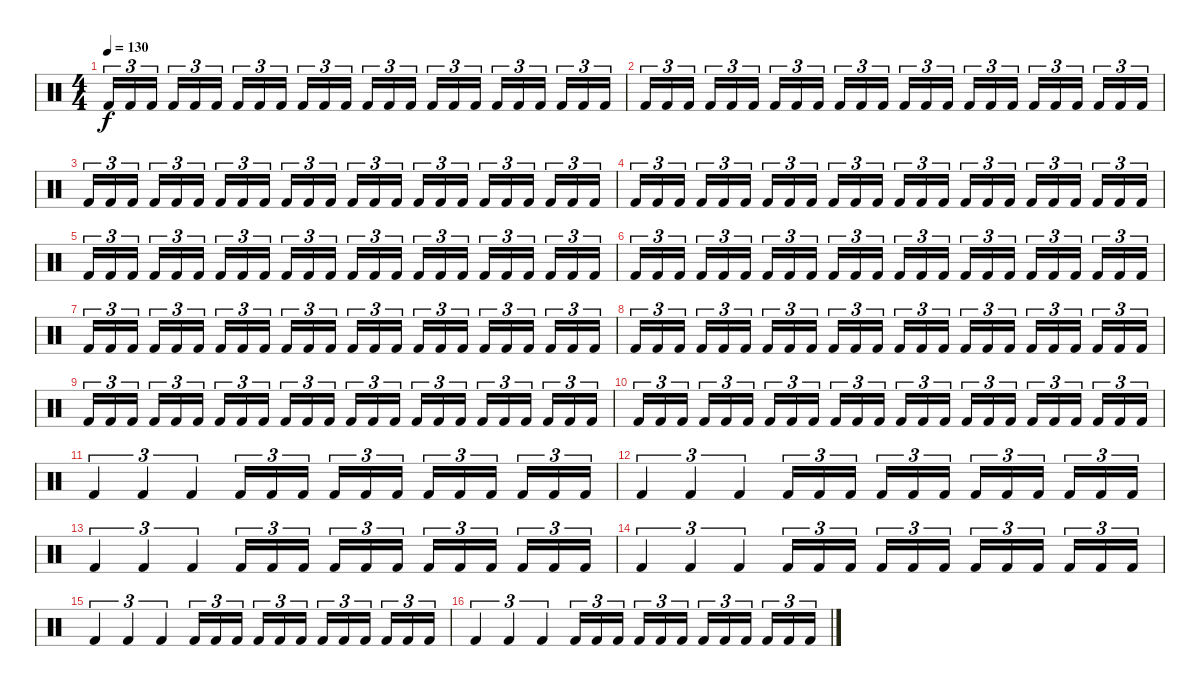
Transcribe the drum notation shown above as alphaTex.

\track "" {instrument percussion}
\staff {score}
\articulation defaults
\ts (4 4)
\tempo 130
\clef neutral
\ks c "Kick (hit) 2".16{tu (3 2) dy f} "Kick (hit) 2".16{tu (3 2)} "Kick (hit) 2".16{tu (3 2)} "Kick (hit) 2".16{tu (3 2)} "Kick (hit) 2".16{tu (3 2)} "Kick (hit) 2".16{tu (3 2)} "Kick (hit) 2".16{tu (3 2)} "Kick (hit) 2".16{tu (3 2)} "Kick (hit) 2".16{tu (3 2)} "Kick (hit) 2".16{tu (3 2)} "Kick (hit) 2".16{tu (3 2)} "Kick (hit) 2".16{tu (3 2)} "Kick (hit) 2".16{tu (3 2)} "Kick (hit) 2".16{tu (3 2)} "Kick (hit) 2".16{tu (3 2)} "Kick (hit) 2".16{tu (3 2)} "Kick (hit) 2".16{tu (3 2)} "Kick (hit) 2".16{tu (3 2)} "Kick (hit) 2".16{tu (3 2)} "Kick (hit) 2".16{tu (3 2)} "Kick (hit) 2".16{tu (3 2)} "Kick (hit) 2".16{tu (3 2)} "Kick (hit) 2".16{tu (3 2)} "Kick (hit) 2".16{tu (3 2)}
|
"Kick (hit) 2".16{tu (3 2)} "Kick (hit) 2".16{tu (3 2)} "Kick (hit) 2".16{tu (3 2)} "Kick (hit) 2".16{tu (3 2)} "Kick (hit) 2".16{tu (3 2)} "Kick (hit) 2".16{tu (3 2)} "Kick (hit) 2".16{tu (3 2)} "Kick (hit) 2".16{tu (3 2)} "Kick (hit) 2".16{tu (3 2)} "Kick (hit) 2".16{tu (3 2)} "Kick (hit) 2".16{tu (3 2)} "Kick (hit) 2".16{tu (3 2)} "Kick (hit) 2".16{tu (3 2)} "Kick (hit) 2".16{tu (3 2)} "Kick (hit) 2".16{tu (3 2)} "Kick (hit) 2".16{tu (3 2)} "Kick (hit) 2".16{tu (3 2)} "Kick (hit) 2".16{tu (3 2)} "Kick (hit) 2".16{tu (3 2)} "Kick (hit) 2".16{tu (3 2)} "Kick (hit) 2".16{tu (3 2)} "Kick (hit) 2".16{tu (3 2)} "Kick (hit) 2".16{tu (3 2)} "Kick (hit) 2".16{tu (3 2)} |
"Kick (hit) 2".16{tu (3 2)} "Kick (hit) 2".16{tu (3 2)} "Kick (hit) 2".16{tu (3 2)} "Kick (hit) 2".16{tu (3 2)} "Kick (hit) 2".16{tu (3 2)} "Kick (hit) 2".16{tu (3 2)} "Kick (hit) 2".16{tu (3 2)} "Kick (hit) 2".16{tu (3 2)} "Kick (hit) 2".16{tu (3 2)} "Kick (hit) 2".16{tu (3 2)} "Kick (hit) 2".16{tu (3 2)} "Kick (hit) 2".16{tu (3 2)} "Kick (hit) 2".16{tu (3 2)} "Kick (hit) 2".16{tu (3 2)} "Kick (hit) 2".16{tu (3 2)} "Kick (hit) 2".16{tu (3 2)} "Kick (hit) 2".16{tu (3 2)} "Kick (hit) 2".16{tu (3 2)} "Kick (hit) 2".16{tu (3 2)} "Kick (hit) 2".16{tu (3 2)} "Kick (hit) 2".16{tu (3 2)} "Kick (hit) 2".16{tu (3 2)} "Kick (hit) 2".16{tu (3 2)} "Kick (hit) 2".16{tu (3 2)} |
"Kick (hit) 2".16{tu (3 2)} "Kick (hit) 2".16{tu (3 2)} "Kick (hit) 2".16{tu (3 2)} "Kick (hit) 2".16{tu (3 2)} "Kick (hit) 2".16{tu (3 2)} "Kick (hit) 2".16{tu (3 2)} "Kick (hit) 2".16{tu (3 2)} "Kick (hit) 2".16{tu (3 2)} "Kick (hit) 2".16{tu (3 2)} "Kick (hit) 2".16{tu (3 2)} "Kick (hit) 2".16{tu (3 2)} "Kick (hit) 2".16{tu (3 2)} "Kick (hit) 2".16{tu (3 2)} "Kick (hit) 2".16{tu (3 2)} "Kick (hit) 2".16{tu (3 2)} "Kick (hit) 2".16{tu (3 2)} "Kick (hit) 2".16{tu (3 2)} "Kick (hit) 2".16{tu (3 2)} "Kick (hit) 2".16{tu (3 2)} "Kick (hit) 2".16{tu (3 2)} "Kick (hit) 2".16{tu (3 2)} "Kick (hit) 2".16{tu (3 2)} "Kick (hit) 2".16{tu (3 2)} "Kick (hit) 2".16{tu (3 2)} |
"Kick (hit) 2".16{tu (3 2)} "Kick (hit) 2".16{tu (3 2)} "Kick (hit) 2".16{tu (3 2)} "Kick (hit) 2".16{tu (3 2)} "Kick (hit) 2".16{tu (3 2)} "Kick (hit) 2".16{tu (3 2)} "Kick (hit) 2".16{tu (3 2)} "Kick (hit) 2".16{tu (3 2)} "Kick (hit) 2".16{tu (3 2)} "Kick (hit) 2".16{tu (3 2)} "Kick (hit) 2".16{tu (3 2)} "Kick (hit) 2".16{tu (3 2)} "Kick (hit) 2".16{tu (3 2)} "Kick (hit) 2".16{tu (3 2)} "Kick (hit) 2".16{tu (3 2)} "Kick (hit) 2".16{tu (3 2)} "Kick (hit) 2".16{tu (3 2)} "Kick (hit) 2".16{tu (3 2)} "Kick (hit) 2".16{tu (3 2)} "Kick (hit) 2".16{tu (3 2)} "Kick (hit) 2".16{tu (3 2)} "Kick (hit) 2".16{tu (3 2)} "Kick (hit) 2".16{tu (3 2)} "Kick (hit) 2".16{tu (3 2)} |
"Kick (hit) 2".16{tu (3 2)} "Kick (hit) 2".16{tu (3 2)} "Kick (hit) 2".16{tu (3 2)} "Kick (hit) 2".16{tu (3 2)} "Kick (hit) 2".16{tu (3 2)} "Kick (hit) 2".16{tu (3 2)} "Kick (hit) 2".16{tu (3 2)} "Kick (hit) 2".16{tu (3 2)} "Kick (hit) 2".16{tu (3 2)} "Kick (hit) 2".16{tu (3 2)} "Kick (hit) 2".16{tu (3 2)} "Kick (hit) 2".16{tu (3 2)} "Kick (hit) 2".16{tu (3 2)} "Kick (hit) 2".16{tu (3 2)} "Kick (hit) 2".16{tu (3 2)} "Kick (hit) 2".16{tu (3 2)} "Kick (hit) 2".16{tu (3 2)} "Kick (hit) 2".16{tu (3 2)} "Kick (hit) 2".16{tu (3 2)} "Kick (hit) 2".16{tu (3 2)} "Kick (hit) 2".16{tu (3 2)} "Kick (hit) 2".16{tu (3 2)} "Kick (hit) 2".16{tu (3 2)} "Kick (hit) 2".16{tu (3 2)} |
"Kick (hit) 2".16{tu (3 2)} "Kick (hit) 2".16{tu (3 2)} "Kick (hit) 2".16{tu (3 2)} "Kick (hit) 2".16{tu (3 2)} "Kick (hit) 2".16{tu (3 2)} "Kick (hit) 2".16{tu (3 2)} "Kick (hit) 2".16{tu (3 2)} "Kick (hit) 2".16{tu (3 2)} "Kick (hit) 2".16{tu (3 2)} "Kick (hit) 2".16{tu (3 2)} "Kick (hit) 2".16{tu (3 2)} "Kick (hit) 2".16{tu (3 2)} "Kick (hit) 2".16{tu (3 2)} "Kick (hit) 2".16{tu (3 2)} "Kick (hit) 2".16{tu (3 2)} "Kick (hit) 2".16{tu (3 2)} "Kick (hit) 2".16{tu (3 2)} "Kick (hit) 2".16{tu (3 2)} "Kick (hit) 2".16{tu (3 2)} "Kick (hit) 2".16{tu (3 2)} "Kick (hit) 2".16{tu (3 2)} "Kick (hit) 2".16{tu (3 2)} "Kick (hit) 2".16{tu (3 2)} "Kick (hit) 2".16{tu (3 2)} |
"Kick (hit) 2".16{tu (3 2)} "Kick (hit) 2".16{tu (3 2)} "Kick (hit) 2".16{tu (3 2)} "Kick (hit) 2".16{tu (3 2)} "Kick (hit) 2".16{tu (3 2)} "Kick (hit) 2".16{tu (3 2)} "Kick (hit) 2".16{tu (3 2)} "Kick (hit) 2".16{tu (3 2)} "Kick (hit) 2".16{tu (3 2)} "Kick (hit) 2".16{tu (3 2)} "Kick (hit) 2".16{tu (3 2)} "Kick (hit) 2".16{tu (3 2)} "Kick (hit) 2".16{tu (3 2)} "Kick (hit) 2".16{tu (3 2)} "Kick (hit) 2".16{tu (3 2)} "Kick (hit) 2".16{tu (3 2)} "Kick (hit) 2".16{tu (3 2)} "Kick (hit) 2".16{tu (3 2)} "Kick (hit) 2".16{tu (3 2)} "Kick (hit) 2".16{tu (3 2)} "Kick (hit) 2".16{tu (3 2)} "Kick (hit) 2".16{tu (3 2)} "Kick (hit) 2".16{tu (3 2)} "Kick (hit) 2".16{tu (3 2)} |
"Kick (hit) 2".16{tu (3 2)} "Kick (hit) 2".16{tu (3 2)} "Kick (hit) 2".16{tu (3 2)} "Kick (hit) 2".16{tu (3 2)} "Kick (hit) 2".16{tu (3 2)} "Kick (hit) 2".16{tu (3 2)} "Kick (hit) 2".16{tu (3 2)} "Kick (hit) 2".16{tu (3 2)} "Kick (hit) 2".16{tu (3 2)} "Kick (hit) 2".16{tu (3 2)} "Kick (hit) 2".16{tu (3 2)} "Kick (hit) 2".16{tu (3 2)} "Kick (hit) 2".16{tu (3 2)} "Kick (hit) 2".16{tu (3 2)} "Kick (hit) 2".16{tu (3 2)} "Kick (hit) 2".16{tu (3 2)} "Kick (hit) 2".16{tu (3 2)} "Kick (hit) 2".16{tu (3 2)} "Kick (hit) 2".16{tu (3 2)} "Kick (hit) 2".16{tu (3 2)} "Kick (hit) 2".16{tu (3 2)} "Kick (hit) 2".16{tu (3 2)} "Kick (hit) 2".16{tu (3 2)} "Kick (hit) 2".16{tu (3 2)} |
"Kick (hit) 2".16{tu (3 2)} "Kick (hit) 2".16{tu (3 2)} "Kick (hit) 2".16{tu (3 2)} "Kick (hit) 2".16{tu (3 2)} "Kick (hit) 2".16{tu (3 2)} "Kick (hit) 2".16{tu (3 2)} "Kick (hit) 2".16{tu (3 2)} "Kick (hit) 2".16{tu (3 2)} "Kick (hit) 2".16{tu (3 2)} "Kick (hit) 2".16{tu (3 2)} "Kick (hit) 2".16{tu (3 2)} "Kick (hit) 2".16{tu (3 2)} "Kick (hit) 2".16{tu (3 2)} "Kick (hit) 2".16{tu (3 2)} "Kick (hit) 2".16{tu (3 2)} "Kick (hit) 2".16{tu (3 2)} "Kick (hit) 2".16{tu (3 2)} "Kick (hit) 2".16{tu (3 2)} "Kick (hit) 2".16{tu (3 2)} "Kick (hit) 2".16{tu (3 2)} "Kick (hit) 2".16{tu (3 2)} "Kick (hit) 2".16{tu (3 2)} "Kick (hit) 2".16{tu (3 2)} "Kick (hit) 2".16{tu (3 2)} |
"Kick (hit) 2".4{tu (3 2)} "Kick (hit) 2".4{tu (3 2)} "Kick (hit) 2".4{tu (3 2)} "Kick (hit) 2".16{tu (3 2)} "Kick (hit) 2".16{tu (3 2)} "Kick (hit) 2".16{tu (3 2)} "Kick (hit) 2".16{tu (3 2)} "Kick (hit) 2".16{tu (3 2)} "Kick (hit) 2".16{tu (3 2)} "Kick (hit) 2".16{tu (3 2)} "Kick (hit) 2".16{tu (3 2)} "Kick (hit) 2".16{tu (3 2)} "Kick (hit) 2".16{tu (3 2)} "Kick (hit) 2".16{tu (3 2)} "Kick (hit) 2".16{tu (3 2)} |
"Kick (hit) 2".4{tu (3 2)} "Kick (hit) 2".4{tu (3 2)} "Kick (hit) 2".4{tu (3 2)} "Kick (hit) 2".16{tu (3 2)} "Kick (hit) 2".16{tu (3 2)} "Kick (hit) 2".16{tu (3 2)} "Kick (hit) 2".16{tu (3 2)} "Kick (hit) 2".16{tu (3 2)} "Kick (hit) 2".16{tu (3 2)} "Kick (hit) 2".16{tu (3 2)} "Kick (hit) 2".16{tu (3 2)} "Kick (hit) 2".16{tu (3 2)} "Kick (hit) 2".16{tu (3 2)} "Kick (hit) 2".16{tu (3 2)} "Kick (hit) 2".16{tu (3 2)} |
"Kick (hit) 2".4{tu (3 2)} "Kick (hit) 2".4{tu (3 2)} "Kick (hit) 2".4{tu (3 2)} "Kick (hit) 2".16{tu (3 2)} "Kick (hit) 2".16{tu (3 2)} "Kick (hit) 2".16{tu (3 2)} "Kick (hit) 2".16{tu (3 2)} "Kick (hit) 2".16{tu (3 2)} "Kick (hit) 2".16{tu (3 2)} "Kick (hit) 2".16{tu (3 2)} "Kick (hit) 2".16{tu (3 2)} "Kick (hit) 2".16{tu (3 2)} "Kick (hit) 2".16{tu (3 2)} "Kick (hit) 2".16{tu (3 2)} "Kick (hit) 2".16{tu (3 2)} |
"Kick (hit) 2".4{tu (3 2)} "Kick (hit) 2".4{tu (3 2)} "Kick (hit) 2".4{tu (3 2)} "Kick (hit) 2".16{tu (3 2)} "Kick (hit) 2".16{tu (3 2)} "Kick (hit) 2".16{tu (3 2)} "Kick (hit) 2".16{tu (3 2)} "Kick (hit) 2".16{tu (3 2)} "Kick (hit) 2".16{tu (3 2)} "Kick (hit) 2".16{tu (3 2)} "Kick (hit) 2".16{tu (3 2)} "Kick (hit) 2".16{tu (3 2)} "Kick (hit) 2".16{tu (3 2)} "Kick (hit) 2".16{tu (3 2)} "Kick (hit) 2".16{tu (3 2)} |
"Kick (hit) 2".4{tu (3 2)} "Kick (hit) 2".4{tu (3 2)} "Kick (hit) 2".4{tu (3 2)} "Kick (hit) 2".16{tu (3 2)} "Kick (hit) 2".16{tu (3 2)} "Kick (hit) 2".16{tu (3 2)} "Kick (hit) 2".16{tu (3 2)} "Kick (hit) 2".16{tu (3 2)} "Kick (hit) 2".16{tu (3 2)} "Kick (hit) 2".16{tu (3 2)} "Kick (hit) 2".16{tu (3 2)} "Kick (hit) 2".16{tu (3 2)} "Kick (hit) 2".16{tu (3 2)} "Kick (hit) 2".16{tu (3 2)} "Kick (hit) 2".16{tu (3 2)} |
"Kick (hit) 2".4{tu (3 2)} "Kick (hit) 2".4{tu (3 2)} "Kick (hit) 2".4{tu (3 2)} "Kick (hit) 2".16{tu (3 2)} "Kick (hit) 2".16{tu (3 2)} "Kick (hit) 2".16{tu (3 2)} "Kick (hit) 2".16{tu (3 2)} "Kick (hit) 2".16{tu (3 2)} "Kick (hit) 2".16{tu (3 2)} "Kick (hit) 2".16{tu (3 2)} "Kick (hit) 2".16{tu (3 2)} "Kick (hit) 2".16{tu (3 2)} "Kick (hit) 2".16{tu (3 2)} "Kick (hit) 2".16{tu (3 2)} "Kick (hit) 2".16{tu (3 2)}
